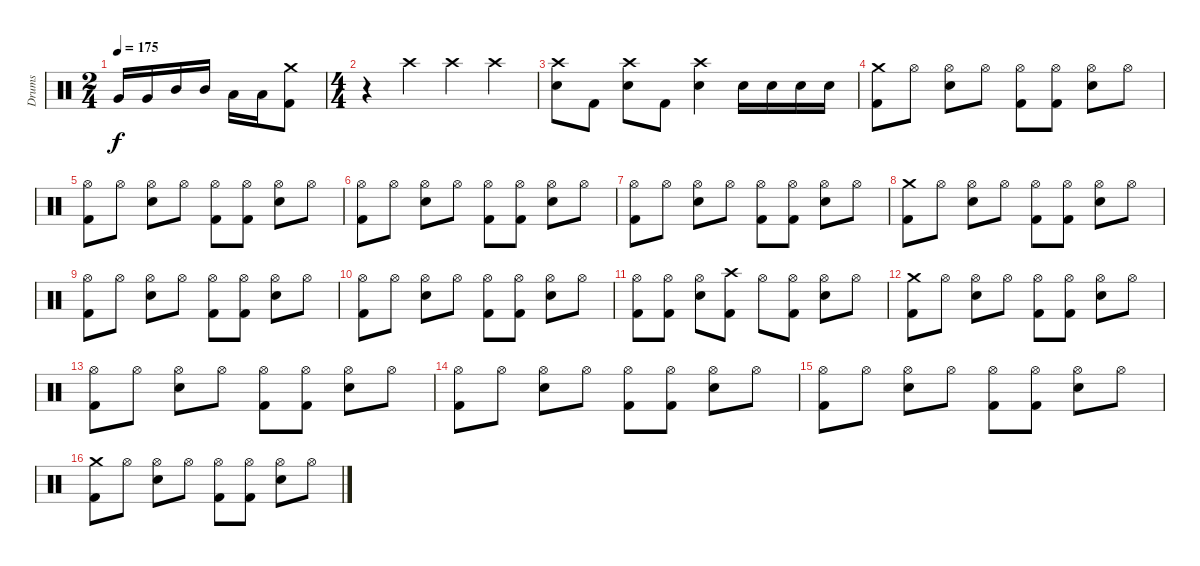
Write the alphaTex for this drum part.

\track ("Drums" "Drums") {instrument percussion}
\staff {score}
\articulation defaults
\ts (2 4)
\tempo 175
\clef neutral
\ks c "Very Low Tom (hit)".16{dy f} "Very Low Tom (hit)".16 "Mid Tom (hit)".16 "Mid Tom (hit)".16 "Low Tom (hit)".16 "Low Tom (hit)".16
("Crash medium (hit)" "Kick (hit) 2").8 |
\ts (4 4)
r.4 "Crash high (hit)".4 "Crash high (hit)".4 "Crash high (hit)".4 |
("Crash high (hit)" "Snare (hit) 2").8 "Kick (hit) 2".8 ("Crash high (hit)" "Snare (hit) 2").8 "Kick (hit) 2".8 ("Crash high (hit)" "Snare (hit) 2").4 "Snare (hit) 2".16 "Snare (hit) 2".16 "Snare (hit) 2".16 "Snare (hit) 2".16 |
("Crash medium (hit)" "Kick (hit) 2").8 "Hi-Hat (open)".8 ("Hi-Hat (open)" "Snare (hit) 2").8 "Hi-Hat (open)".8 ("Hi-Hat (open)" "Kick (hit) 2").8 ("Hi-Hat (open)" "Kick (hit) 2").8 ("Hi-Hat (open)" "Snare (hit) 2").8 "Hi-Hat (open)".8 |
("Hi-Hat (open)" "Kick (hit) 2").8 "Hi-Hat (open)".8 ("Hi-Hat (open)" "Snare (hit) 2").8 "Hi-Hat (open)".8 ("Hi-Hat (open)" "Kick (hit) 2").8 ("Hi-Hat (open)" "Kick (hit) 2").8 ("Hi-Hat (open)" "Snare (hit) 2").8 "Hi-Hat (open)".8 |
("Hi-Hat (open)" "Kick (hit) 2").8 "Hi-Hat (open)".8 ("Hi-Hat (open)" "Snare (hit) 2").8 "Hi-Hat (open)".8 ("Hi-Hat (open)" "Kick (hit) 2").8 ("Hi-Hat (open)" "Kick (hit) 2").8 ("Hi-Hat (open)" "Snare (hit) 2").8 "Hi-Hat (open)".8 |
("Hi-Hat (open)" "Kick (hit) 2").8 "Hi-Hat (open)".8 ("Hi-Hat (open)" "Snare (hit) 2").8 "Hi-Hat (open)".8 ("Hi-Hat (open)" "Kick (hit) 2").8 ("Hi-Hat (open)" "Kick (hit) 2").8 ("Hi-Hat (open)" "Snare (hit) 2").8 "Hi-Hat (open)".8 |
("Crash medium (hit)" "Kick (hit) 2").8 "Hi-Hat (open)".8 ("Hi-Hat (open)" "Snare (hit) 2").8 "Hi-Hat (open)".8 ("Hi-Hat (open)" "Kick (hit) 2").8 ("Hi-Hat (open)" "Kick (hit) 2").8 ("Hi-Hat (open)" "Snare (hit) 2").8 "Hi-Hat (open)".8 |
("Hi-Hat (open)" "Kick (hit) 2").8 "Hi-Hat (open)".8 ("Hi-Hat (open)" "Snare (hit) 2").8 "Hi-Hat (open)".8 ("Hi-Hat (open)" "Kick (hit) 2").8 ("Hi-Hat (open)" "Kick (hit) 2").8 ("Hi-Hat (open)" "Snare (hit) 2").8 "Hi-Hat (open)".8 |
("Hi-Hat (open)" "Kick (hit) 2").8 "Hi-Hat (open)".8 ("Hi-Hat (open)" "Snare (hit) 2").8 "Hi-Hat (open)".8 ("Hi-Hat (open)" "Kick (hit) 2").8 ("Hi-Hat (open)" "Kick (hit) 2").8 ("Hi-Hat (open)" "Snare (hit) 2").8 "Hi-Hat (open)".8 |
("Hi-Hat (open)" "Kick (hit) 2").8 ("Hi-Hat (open)" "Kick (hit) 2").8 ("Hi-Hat (open)" "Snare (hit) 2").8 ("Crash high (hit)" "Kick (hit) 2").8 "Hi-Hat (open)".8 ("Hi-Hat (open)" "Kick (hit) 2").8 ("Hi-Hat (open)" "Snare (hit) 2").8 "Hi-Hat (open)".8 |
("Crash medium (hit)" "Kick (hit) 2").8 "Hi-Hat (open)".8 ("Hi-Hat (open)" "Snare (hit) 2").8 "Hi-Hat (open)".8 ("Hi-Hat (open)" "Kick (hit) 2").8 ("Hi-Hat (open)" "Kick (hit) 2").8 ("Hi-Hat (open)" "Snare (hit) 2").8 "Hi-Hat (open)".8 |
("Hi-Hat (open)" "Kick (hit) 2").8 "Hi-Hat (open)".8 ("Hi-Hat (open)" "Snare (hit) 2").8 "Hi-Hat (open)".8 ("Hi-Hat (open)" "Kick (hit) 2").8 ("Hi-Hat (open)" "Kick (hit) 2").8 ("Hi-Hat (open)" "Snare (hit) 2").8 "Hi-Hat (open)".8 |
("Hi-Hat (open)" "Kick (hit) 2").8 "Hi-Hat (open)".8 ("Hi-Hat (open)" "Snare (hit) 2").8 "Hi-Hat (open)".8 ("Hi-Hat (open)" "Kick (hit) 2").8 ("Hi-Hat (open)" "Kick (hit) 2").8 ("Hi-Hat (open)" "Snare (hit) 2").8 "Hi-Hat (open)".8 |
("Hi-Hat (open)" "Kick (hit) 2").8 "Hi-Hat (open)".8 ("Hi-Hat (open)" "Snare (hit) 2").8 "Hi-Hat (open)".8 ("Hi-Hat (open)" "Kick (hit) 2").8 ("Hi-Hat (open)" "Kick (hit) 2").8 ("Hi-Hat (open)" "Snare (hit) 2").8 "Hi-Hat (open)".8 |
("Crash medium (hit)" "Kick (hit) 2").8 "Hi-Hat (open)".8 ("Hi-Hat (open)" "Snare (hit) 2").8 "Hi-Hat (open)".8 ("Hi-Hat (open)" "Kick (hit) 2").8 ("Hi-Hat (open)" "Kick (hit) 2").8 ("Hi-Hat (open)" "Snare (hit) 2").8 "Hi-Hat (open)".8
